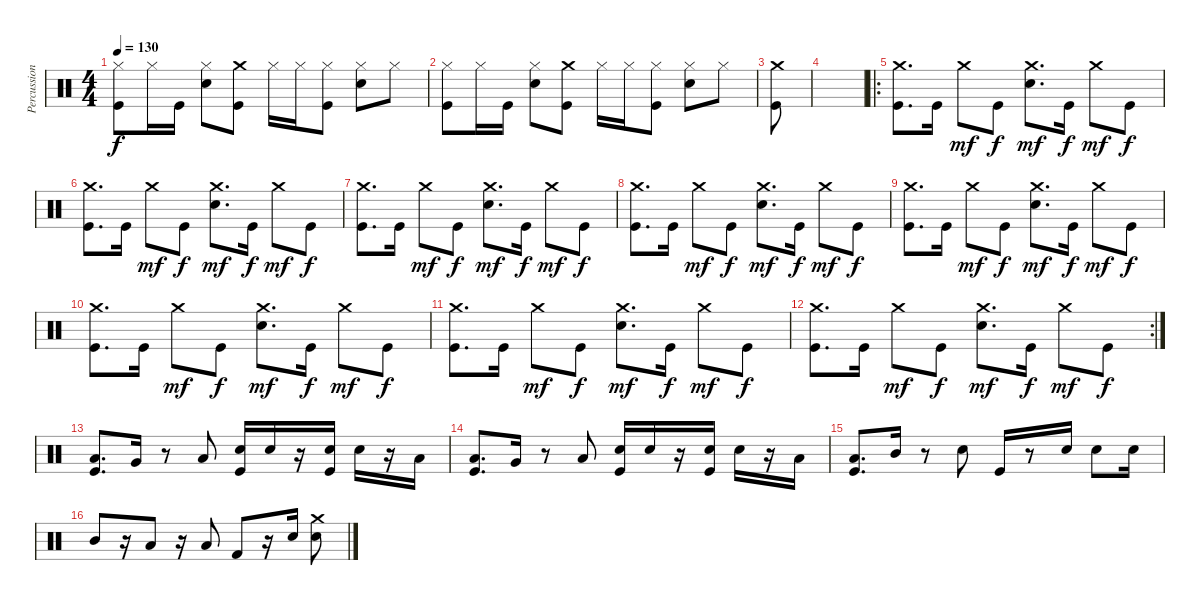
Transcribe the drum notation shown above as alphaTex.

\track ("Percussion" "Percussion") {instrument percussion}
\staff {score}
\articulation defaults
\ts (4 4)
\tempo 130
\clef neutral
\ks c
("Hi-Hat (closed)" "Kick (hit)").8{dy f} "Hi-Hat (closed)".16 "Kick (hit)".16 ("Hi-Hat (closed)" "Snare (hit) 2").8 ("Crash medium (hit)" "Kick (hit)").8 "Hi-Hat (closed)".16 "Hi-Hat (closed)".16 ("Hi-Hat (closed)" "Kick (hit)").8 ("Hi-Hat (closed)" "Snare (hit) 2").8 "Hi-Hat (closed)".8 |
("Hi-Hat (closed)" "Kick (hit)").8 "Hi-Hat (closed)".16 "Kick (hit)".16 ("Hi-Hat (closed)" "Snare (hit) 2").8 ("Crash medium (hit)" "Kick (hit)").8 "Hi-Hat (closed)".16 "Hi-Hat (closed)".16 ("Hi-Hat (closed)" "Kick (hit)").8 ("Hi-Hat (closed)" "Snare (hit) 2").8 "Hi-Hat (closed)".8 |
("Crash medium (hit)" "Kick (hit)").8 |
|
\ro
("Crash medium (hit)" "Kick (hit)").8{d} "Kick (hit)".16 "Crash medium (hit)".8{dy mf} "Kick (hit)".8{dy f} ("Crash medium (hit)" "Snare (hit) 2").8{d dy mf} "Kick (hit)".16{dy f} "Crash medium (hit)".8{dy mf} "Kick (hit)".8{dy f} |
("Crash medium (hit)" "Kick (hit)").8{d} "Kick (hit)".16 "Crash medium (hit)".8{dy mf} "Kick (hit)".8{dy f} ("Crash medium (hit)" "Snare (hit) 2").8{d dy mf} "Kick (hit)".16{dy f} "Crash medium (hit)".8{dy mf} "Kick (hit)".8{dy f} |
("Crash medium (hit)" "Kick (hit)").8{d} "Kick (hit)".16 "Crash medium (hit)".8{dy mf} "Kick (hit)".8{dy f} ("Crash medium (hit)" "Snare (hit) 2").8{d dy mf} "Kick (hit)".16{dy f} "Crash medium (hit)".8{dy mf} "Kick (hit)".8{dy f} |
("Crash medium (hit)" "Kick (hit)").8{d} "Kick (hit)".16 "Crash medium (hit)".8{dy mf} "Kick (hit)".8{dy f} ("Crash medium (hit)" "Snare (hit) 2").8{d dy mf} "Kick (hit)".16{dy f} "Crash medium (hit)".8{dy mf} "Kick (hit)".8{dy f} |
("Crash medium (hit)" "Kick (hit)").8{d} "Kick (hit)".16 "Crash medium (hit)".8{dy mf} "Kick (hit)".8{dy f} ("Crash medium (hit)" "Snare (hit) 2").8{d dy mf} "Kick (hit)".16{dy f} "Crash medium (hit)".8{dy mf} "Kick (hit)".8{dy f} |
("Crash medium (hit)" "Kick (hit)").8{d} "Kick (hit)".16 "Crash medium (hit)".8{dy mf} "Kick (hit)".8{dy f} ("Crash medium (hit)" "Snare (hit) 2").8{d dy mf} "Kick (hit)".16{dy f} "Crash medium (hit)".8{dy mf} "Kick (hit)".8{dy f} |
("Crash medium (hit)" "Kick (hit)").8{d} "Kick (hit)".16 "Crash medium (hit)".8{dy mf} "Kick (hit)".8{dy f} ("Crash medium (hit)" "Snare (hit) 2").8{d dy mf} "Kick (hit)".16{dy f} "Crash medium (hit)".8{dy mf} "Kick (hit)".8{dy f} |
\rc 2
("Crash medium (hit)" "Kick (hit)").8{d} "Kick (hit)".16 "Crash medium (hit)".8{dy mf} "Kick (hit)".8{dy f} ("Crash medium (hit)" "Snare (hit) 2").8{d dy mf} "Kick (hit)".16{dy f} "Crash medium (hit)".8{dy mf} "Kick (hit)".8{dy f} |
("Low Tom (hit)" "Kick (hit)").8{d} "Very Low Tom (hit)".16 r.8 "Low Floor Tom (hit)".8 ("Snare (hit) 2" "Kick (hit)").16 "Snare (hit) 2".16 r.16 ("Snare (hit) 2" "Kick (hit)").16 "Snare (hit) 2".16 r.16 "Low Floor Tom (hit)".16 |
("Low Tom (hit)" "Kick (hit)").8{d} "Very Low Tom (hit)".16 r.8 "Low Floor Tom (hit)".8 ("Snare (hit) 2" "Kick (hit)").16 "Snare (hit) 2".16 r.16 ("Snare (hit) 2" "Kick (hit)").16 "Snare (hit) 2".16 r.16 "Low Floor Tom (hit)".16 |
("Low Tom (hit)" "Kick (hit)").8{d} "Mid Tom (hit)".16 r.8 "Snare (hit) 2".8 "Kick (hit)".16 r.8 "Snare (hit) 2".16 "Snare (hit) 2".8 "Snare (hit) 2".16 |
"Mid Tom (hit)".8 r.16 "Low Tom (hit)".8 r.16 "Low Floor Tom (hit)".8 "Kick (hit) 2".8 r.16 "Snare (hit) 2".16 ("Crash medium (hit)" "Snare (hit) 2").8
